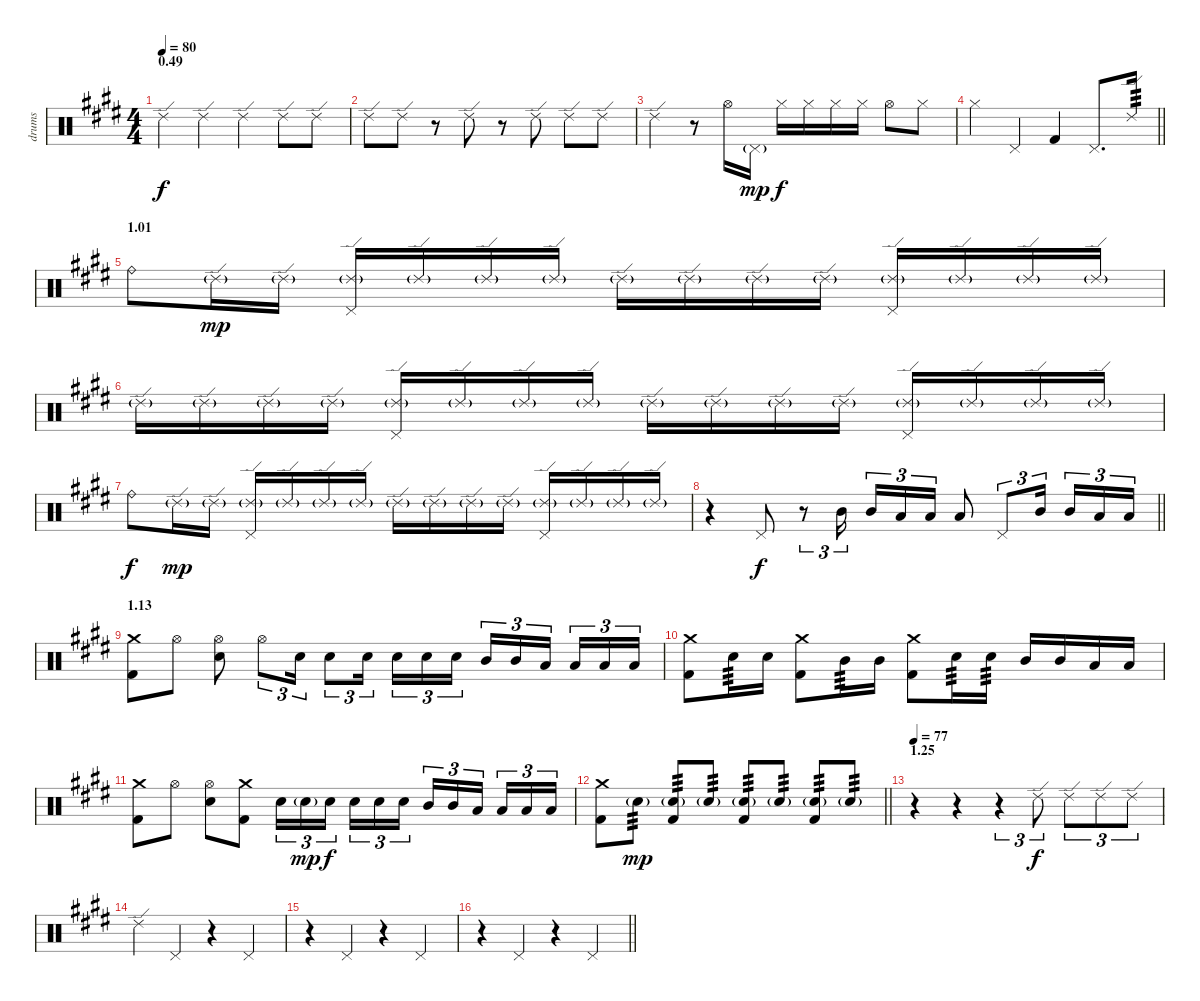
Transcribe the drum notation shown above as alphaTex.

\track ("drums" "drums") {instrument percussion}
\staff {score}
\articulation defaults
\ts (4 4)
\section ("" "0.49")
\tempo 80
\clef neutral
\ks e "Ride (edge) 2".4{dy f} "Ride (edge) 2".4 "Ride (edge) 2".4 "Ride (edge) 2".8 "Ride (edge) 2".8
|
"Ride (edge) 2".8 "Ride (edge) 2".8 r.8 "Ride (edge) 2".8 r.8 "Ride (edge) 2".8 "Ride (edge) 2".8 "Ride (edge) 2".8 |
"Ride (edge) 2".4 r.8 "Hi-Hat (open)".16 "Pedal Hi-Hat (hit)"{g}.16{dy mp} "Hi-Hat (closed)".16{dy f} "Hi-Hat (closed)".16 "Hi-Hat (closed)".16 "Hi-Hat (closed)".16 "Hi-Hat (open)".8 "Hi-Hat (closed)".8 |
\barLineRight lightlight "Hi-Hat (closed)".4 "Pedal Hi-Hat (hit)".4 "Kick (hit) 2".4 "Pedal Hi-Hat (hit)".8{d} "Ride (edge) 2".16{tp 3}
|
\section ("" "1.01")
"Ride (bell)".8 "Ride (edge) 2"{g}.16{dy mp} "Ride (edge) 2"{g}.16 ("Ride (edge) 2"{g} "Pedal Hi-Hat (hit)").16 "Ride (edge) 2"{g}.16 "Ride (edge) 2"{g}.16 "Ride (edge) 2"{g}.16 "Ride (edge) 2"{g}.16 "Ride (edge) 2"{g}.16 "Ride (edge) 2"{g}.16 "Ride (edge) 2"{g}.16 ("Ride (edge) 2"{g} "Pedal Hi-Hat (hit)").16 "Ride (edge) 2"{g}.16 "Ride (edge) 2"{g}.16 "Ride (edge) 2"{g}.16 |
"Ride (edge) 2"{g}.16 "Ride (edge) 2"{g}.16 "Ride (edge) 2"{g}.16 "Ride (edge) 2"{g}.16 ("Ride (edge) 2"{g} "Pedal Hi-Hat (hit)").16 "Ride (edge) 2"{g}.16 "Ride (edge) 2"{g}.16 "Ride (edge) 2"{g}.16 "Ride (edge) 2"{g}.16 "Ride (edge) 2"{g}.16 "Ride (edge) 2"{g}.16 "Ride (edge) 2"{g}.16 ("Ride (edge) 2"{g} "Pedal Hi-Hat (hit)").16 "Ride (edge) 2"{g}.16 "Ride (edge) 2"{g}.16 "Ride (edge) 2"{g}.16 |
"Ride (bell)".8{dy f} "Ride (edge) 2"{g}.16{dy mp} "Ride (edge) 2"{g}.16 ("Ride (edge) 2"{g} "Pedal Hi-Hat (hit)").16 "Ride (edge) 2"{g}.16 "Ride (edge) 2"{g}.16 "Ride (edge) 2"{g}.16 "Ride (edge) 2"{g}.16 "Ride (edge) 2"{g}.16 "Ride (edge) 2"{g}.16 "Ride (edge) 2"{g}.16 ("Ride (edge) 2"{g} "Pedal Hi-Hat (hit)").16 "Ride (edge) 2"{g}.16 "Ride (edge) 2"{g}.16 "Ride (edge) 2"{g}.16 |
\barLineRight lightlight
r.4 "Pedal Hi-Hat (hit)".8{dy f} r.8{tu (3 2)} "Mid Tom (hit)".16{tu (3 2)} "Mid Tom (hit)".16{tu (3 2)} "Low Tom (hit)".16{tu (3 2)} "Low Tom (hit)".16{tu (3 2)} "Low Tom (hit)".8 "Pedal Hi-Hat (hit)".8{tu (3 2)} "Mid Tom (hit)".16{tu (3 2) beam splitsecondary} "Mid Tom (hit)".16{tu (3 2)} "Low Tom (hit)".16{tu (3 2)} "Low Tom (hit)".16{tu (3 2)} |
\section ("" "1.13")
("Crash medium (hit)" "Kick (hit) 2").8 "Hi-Hat (open)".8 ("Hi-Hat (open)" "Electric Snare (hit)").8 "Hi-Hat (open)".8{tu (3 2)} "Electric Snare (hit)".16{tu (3 2)} "Electric Snare (hit)".8{tu (3 2)} "Electric Snare (hit)".16{tu (3 2) beam splitsecondary} "Electric Snare (hit)".16{tu (3 2)} "Electric Snare (hit)".16{tu (3 2)} "Electric Snare (hit)".16{tu (3 2)} "Mid Tom (hit)".16{tu (3 2)} "Mid Tom (hit)".16{tu (3 2)} "Low Tom (hit)".16{tu (3 2) beam splitsecondary} "Low Tom (hit)".16{tu (3 2)} "Low Tom (hit)".16{tu (3 2)} "Low Tom (hit)".16{tu (3 2)} |
("Crash medium (hit)" "Kick (hit) 2").8 "Electric Snare (hit)".16{tp 3} "Electric Snare (hit)".16 ("Crash medium (hit)" "Kick (hit) 2").8 "Mid Tom (hit)".16{tp 3} "Mid Tom (hit)".16 ("Crash medium (hit)" "Kick (hit) 2").8 "Electric Snare (hit)".16{tp 3} "Electric Snare (hit)".16{tp 3} "Mid Tom (hit)".16 "Mid Tom (hit)".16 "Low Tom (hit)".16 "Low Tom (hit)".16 |
("Crash medium (hit)" "Kick (hit) 2").8 "Hi-Hat (open)".8 ("Hi-Hat (open)" "Electric Snare (hit)").8 ("Crash medium (hit)" "Kick (hit) 2").8 "Electric Snare (hit)".16{tu (3 2)} "Electric Snare (hit)"{g}.16{tu (3 2) dy mp} "Electric Snare (hit)".16{tu (3 2) dy f beam splitsecondary} "Electric Snare (hit)".16{tu (3 2)} "Electric Snare (hit)".16{tu (3 2)} "Electric Snare (hit)".16{tu (3 2)} "Mid Tom (hit)".16{tu (3 2)} "Mid Tom (hit)".16{tu (3 2)} "Low Tom (hit)".16{tu (3 2) beam splitsecondary} "Low Tom (hit)".16{tu (3 2)} "Low Tom (hit)".16{tu (3 2)} "Low Tom (hit)".16{tu (3 2)} |
\barLineRight lightlight
("Crash medium (hit)" "Kick (hit) 2").8 "Electric Snare (hit)"{g}.8{tp 3 dy mp} ("Electric Snare (hit)"{g} "Kick (hit) 2").8{tp 3} "Electric Snare (hit)"{g}.8{tp 3} ("Electric Snare (hit)"{g} "Kick (hit) 2").8{tp 3} "Electric Snare (hit)"{g}.8{tp 3} ("Electric Snare (hit)"{g} "Kick (hit) 2").8{tp 3} "Electric Snare (hit)"{g}.8{tp 3} |
\section ("" "1.25")
\tempo 77
r.4 r.4 r.4{tu (3 2)} "Ride (edge) 2".8{tu (3 2) dy f} "Ride (edge) 2".8{tu (3 2)} "Ride (edge) 2".8{tu (3 2)} "Ride (edge) 2".8{tu (3 2)} |
"Ride (edge) 2".4 "Pedal Hi-Hat (hit)".4 r.4 "Pedal Hi-Hat (hit)".4 |
r.4 "Pedal Hi-Hat (hit)".4 r.4 "Pedal Hi-Hat (hit)".4 |
\barLineRight lightlight
r.4 "Pedal Hi-Hat (hit)".4 r.4 "Pedal Hi-Hat (hit)".4
